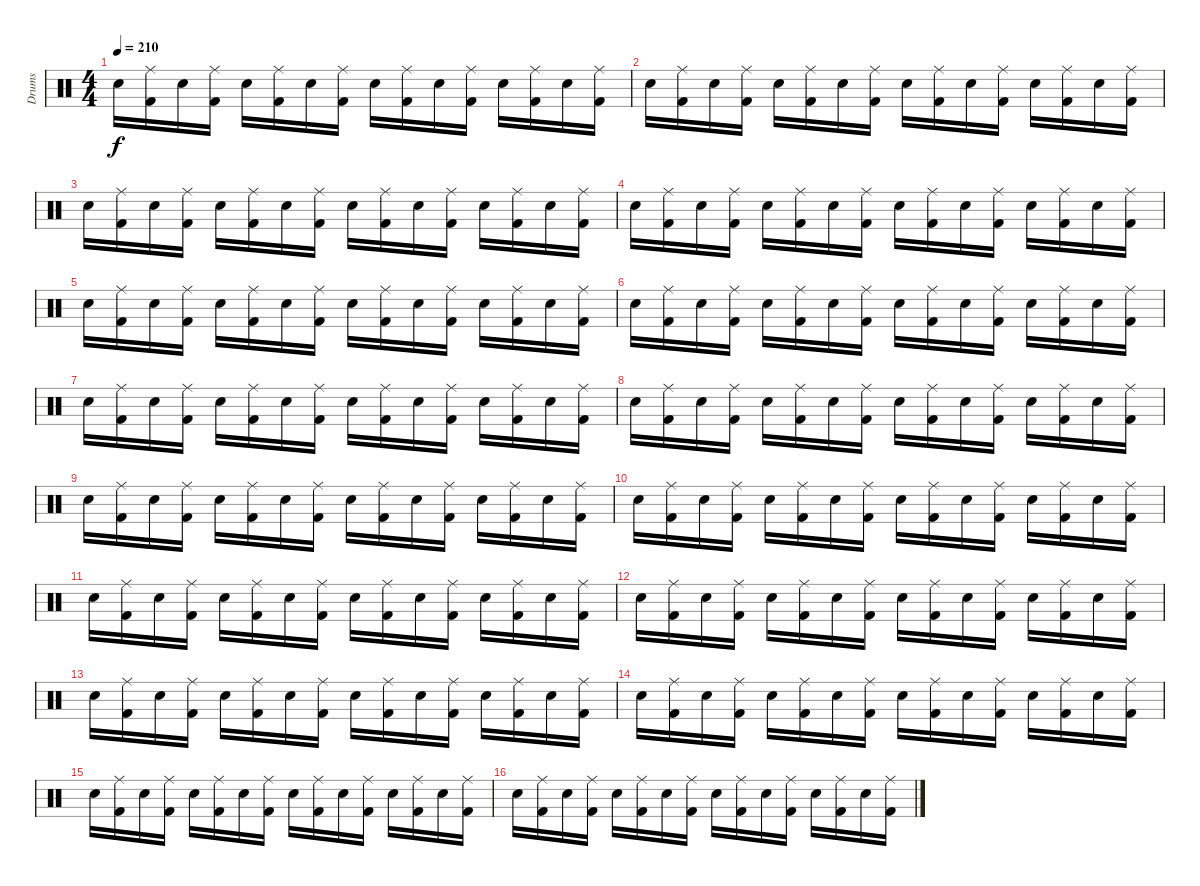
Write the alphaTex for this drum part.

\track ("Drums" "Drums") {instrument percussion}
\staff {score}
\articulation defaults
\ts (4 4)
\tempo 210
\clef neutral
\ks c "Electric Snare (hit)".16{dy f}
("Ride (middle)" "Kick (hit) 2").16 "Electric Snare (hit)".16 ("Ride (middle)" "Kick (hit) 2").16 "Electric Snare (hit)".16 ("Ride (middle)" "Kick (hit) 2").16 "Electric Snare (hit)".16 ("Ride (middle)" "Kick (hit) 2").16 "Electric Snare (hit)".16 ("Ride (middle)" "Kick (hit) 2").16 "Electric Snare (hit)".16 ("Ride (middle)" "Kick (hit) 2").16 "Electric Snare (hit)".16 ("Ride (middle)" "Kick (hit) 2").16 "Electric Snare (hit)".16 ("Ride (middle)" "Kick (hit) 2").16 |
"Electric Snare (hit)".16 ("Ride (middle)" "Kick (hit) 2").16 "Electric Snare (hit)".16 ("Ride (middle)" "Kick (hit) 2").16 "Electric Snare (hit)".16 ("Ride (middle)" "Kick (hit) 2").16 "Electric Snare (hit)".16 ("Ride (middle)" "Kick (hit) 2").16 "Electric Snare (hit)".16 ("Ride (middle)" "Kick (hit) 2").16 "Electric Snare (hit)".16 ("Ride (middle)" "Kick (hit) 2").16 "Electric Snare (hit)".16 ("Ride (middle)" "Kick (hit) 2").16 "Electric Snare (hit)".16 ("Ride (middle)" "Kick (hit) 2").16 |
"Electric Snare (hit)".16 ("Ride (middle)" "Kick (hit) 2").16 "Electric Snare (hit)".16 ("Ride (middle)" "Kick (hit) 2").16 "Electric Snare (hit)".16 ("Ride (middle)" "Kick (hit) 2").16 "Electric Snare (hit)".16 ("Ride (middle)" "Kick (hit) 2").16 "Electric Snare (hit)".16 ("Ride (middle)" "Kick (hit) 2").16 "Electric Snare (hit)".16 ("Ride (middle)" "Kick (hit) 2").16 "Electric Snare (hit)".16 ("Ride (middle)" "Kick (hit) 2").16 "Electric Snare (hit)".16 ("Ride (middle)" "Kick (hit) 2").16 |
"Electric Snare (hit)".16 ("Ride (middle)" "Kick (hit) 2").16 "Electric Snare (hit)".16 ("Ride (middle)" "Kick (hit) 2").16 "Electric Snare (hit)".16 ("Ride (middle)" "Kick (hit) 2").16 "Electric Snare (hit)".16 ("Ride (middle)" "Kick (hit) 2").16 "Electric Snare (hit)".16 ("Ride (middle)" "Kick (hit) 2").16 "Electric Snare (hit)".16 ("Ride (middle)" "Kick (hit) 2").16 "Electric Snare (hit)".16 ("Ride (middle)" "Kick (hit) 2").16 "Electric Snare (hit)".16 ("Ride (middle)" "Kick (hit) 2").16 |
"Electric Snare (hit)".16 ("Ride (middle)" "Kick (hit) 2").16 "Electric Snare (hit)".16 ("Ride (middle)" "Kick (hit) 2").16 "Electric Snare (hit)".16 ("Ride (middle)" "Kick (hit) 2").16 "Electric Snare (hit)".16 ("Ride (middle)" "Kick (hit) 2").16 "Electric Snare (hit)".16 ("Ride (middle)" "Kick (hit) 2").16 "Electric Snare (hit)".16 ("Ride (middle)" "Kick (hit) 2").16 "Electric Snare (hit)".16 ("Ride (middle)" "Kick (hit) 2").16 "Electric Snare (hit)".16 ("Ride (middle)" "Kick (hit) 2").16 |
"Electric Snare (hit)".16 ("Ride (middle)" "Kick (hit) 2").16 "Electric Snare (hit)".16 ("Ride (middle)" "Kick (hit) 2").16 "Electric Snare (hit)".16 ("Ride (middle)" "Kick (hit) 2").16 "Electric Snare (hit)".16 ("Ride (middle)" "Kick (hit) 2").16 "Electric Snare (hit)".16 ("Ride (middle)" "Kick (hit) 2").16 "Electric Snare (hit)".16 ("Ride (middle)" "Kick (hit) 2").16 "Electric Snare (hit)".16 ("Ride (middle)" "Kick (hit) 2").16 "Electric Snare (hit)".16 ("Ride (middle)" "Kick (hit) 2").16 |
"Electric Snare (hit)".16 ("Ride (middle)" "Kick (hit) 2").16 "Electric Snare (hit)".16 ("Ride (middle)" "Kick (hit) 2").16 "Electric Snare (hit)".16 ("Ride (middle)" "Kick (hit) 2").16 "Electric Snare (hit)".16 ("Ride (middle)" "Kick (hit) 2").16 "Electric Snare (hit)".16 ("Ride (middle)" "Kick (hit) 2").16 "Electric Snare (hit)".16 ("Ride (middle)" "Kick (hit) 2").16 "Electric Snare (hit)".16 ("Ride (middle)" "Kick (hit) 2").16 "Electric Snare (hit)".16 ("Ride (middle)" "Kick (hit) 2").16 |
"Electric Snare (hit)".16 ("Ride (middle)" "Kick (hit) 2").16 "Electric Snare (hit)".16 ("Ride (middle)" "Kick (hit) 2").16 "Electric Snare (hit)".16 ("Ride (middle)" "Kick (hit) 2").16 "Electric Snare (hit)".16 ("Ride (middle)" "Kick (hit) 2").16 "Electric Snare (hit)".16 ("Ride (middle)" "Kick (hit) 2").16 "Electric Snare (hit)".16 ("Ride (middle)" "Kick (hit) 2").16 "Electric Snare (hit)".16 ("Ride (middle)" "Kick (hit) 2").16 "Electric Snare (hit)".16 ("Ride (middle)" "Kick (hit) 2").16 |
"Electric Snare (hit)".16 ("Ride (middle)" "Kick (hit) 2").16 "Electric Snare (hit)".16 ("Ride (middle)" "Kick (hit) 2").16 "Electric Snare (hit)".16 ("Ride (middle)" "Kick (hit) 2").16 "Electric Snare (hit)".16 ("Ride (middle)" "Kick (hit) 2").16 "Electric Snare (hit)".16 ("Ride (middle)" "Kick (hit) 2").16 "Electric Snare (hit)".16 ("Ride (middle)" "Kick (hit) 2").16 "Electric Snare (hit)".16 ("Ride (middle)" "Kick (hit) 2").16 "Electric Snare (hit)".16 ("Ride (middle)" "Kick (hit) 2").16 |
"Electric Snare (hit)".16 ("Ride (middle)" "Kick (hit) 2").16 "Electric Snare (hit)".16 ("Ride (middle)" "Kick (hit) 2").16 "Electric Snare (hit)".16 ("Ride (middle)" "Kick (hit) 2").16 "Electric Snare (hit)".16 ("Ride (middle)" "Kick (hit) 2").16 "Electric Snare (hit)".16 ("Ride (middle)" "Kick (hit) 2").16 "Electric Snare (hit)".16 ("Ride (middle)" "Kick (hit) 2").16 "Electric Snare (hit)".16 ("Ride (middle)" "Kick (hit) 2").16 "Electric Snare (hit)".16 ("Ride (middle)" "Kick (hit) 2").16 |
"Electric Snare (hit)".16 ("Ride (middle)" "Kick (hit) 2").16 "Electric Snare (hit)".16 ("Ride (middle)" "Kick (hit) 2").16 "Electric Snare (hit)".16 ("Ride (middle)" "Kick (hit) 2").16 "Electric Snare (hit)".16 ("Ride (middle)" "Kick (hit) 2").16 "Electric Snare (hit)".16 ("Ride (middle)" "Kick (hit) 2").16 "Electric Snare (hit)".16 ("Ride (middle)" "Kick (hit) 2").16 "Electric Snare (hit)".16 ("Ride (middle)" "Kick (hit) 2").16 "Electric Snare (hit)".16 ("Ride (middle)" "Kick (hit) 2").16 |
"Electric Snare (hit)".16 ("Ride (middle)" "Kick (hit) 2").16 "Electric Snare (hit)".16 ("Ride (middle)" "Kick (hit) 2").16 "Electric Snare (hit)".16 ("Ride (middle)" "Kick (hit) 2").16 "Electric Snare (hit)".16 ("Ride (middle)" "Kick (hit) 2").16 "Electric Snare (hit)".16 ("Ride (middle)" "Kick (hit) 2").16 "Electric Snare (hit)".16 ("Ride (middle)" "Kick (hit) 2").16 "Electric Snare (hit)".16 ("Ride (middle)" "Kick (hit) 2").16 "Electric Snare (hit)".16 ("Ride (middle)" "Kick (hit) 2").16 |
"Electric Snare (hit)".16 ("Ride (middle)" "Kick (hit) 2").16 "Electric Snare (hit)".16 ("Ride (middle)" "Kick (hit) 2").16 "Electric Snare (hit)".16 ("Ride (middle)" "Kick (hit) 2").16 "Electric Snare (hit)".16 ("Ride (middle)" "Kick (hit) 2").16 "Electric Snare (hit)".16 ("Ride (middle)" "Kick (hit) 2").16 "Electric Snare (hit)".16 ("Ride (middle)" "Kick (hit) 2").16 "Electric Snare (hit)".16 ("Ride (middle)" "Kick (hit) 2").16 "Electric Snare (hit)".16 ("Ride (middle)" "Kick (hit) 2").16 |
"Electric Snare (hit)".16 ("Ride (middle)" "Kick (hit) 2").16 "Electric Snare (hit)".16 ("Ride (middle)" "Kick (hit) 2").16 "Electric Snare (hit)".16 ("Ride (middle)" "Kick (hit) 2").16 "Electric Snare (hit)".16 ("Ride (middle)" "Kick (hit) 2").16 "Electric Snare (hit)".16 ("Ride (middle)" "Kick (hit) 2").16 "Electric Snare (hit)".16 ("Ride (middle)" "Kick (hit) 2").16 "Electric Snare (hit)".16 ("Ride (middle)" "Kick (hit) 2").16 "Electric Snare (hit)".16 ("Ride (middle)" "Kick (hit) 2").16 |
"Electric Snare (hit)".16 ("Ride (middle)" "Kick (hit) 2").16 "Electric Snare (hit)".16 ("Ride (middle)" "Kick (hit) 2").16 "Electric Snare (hit)".16 ("Ride (middle)" "Kick (hit) 2").16 "Electric Snare (hit)".16 ("Ride (middle)" "Kick (hit) 2").16 "Electric Snare (hit)".16 ("Ride (middle)" "Kick (hit) 2").16 "Electric Snare (hit)".16 ("Ride (middle)" "Kick (hit) 2").16 "Electric Snare (hit)".16 ("Ride (middle)" "Kick (hit) 2").16 "Electric Snare (hit)".16 ("Ride (middle)" "Kick (hit) 2").16 |
"Electric Snare (hit)".16 ("Ride (middle)" "Kick (hit) 2").16 "Electric Snare (hit)".16 ("Ride (middle)" "Kick (hit) 2").16 "Electric Snare (hit)".16 ("Ride (middle)" "Kick (hit) 2").16 "Electric Snare (hit)".16 ("Ride (middle)" "Kick (hit) 2").16 "Electric Snare (hit)".16 ("Ride (middle)" "Kick (hit) 2").16 "Electric Snare (hit)".16 ("Ride (middle)" "Kick (hit) 2").16 "Electric Snare (hit)".16 ("Ride (middle)" "Kick (hit) 2").16 "Electric Snare (hit)".16 ("Ride (middle)" "Kick (hit) 2").16
